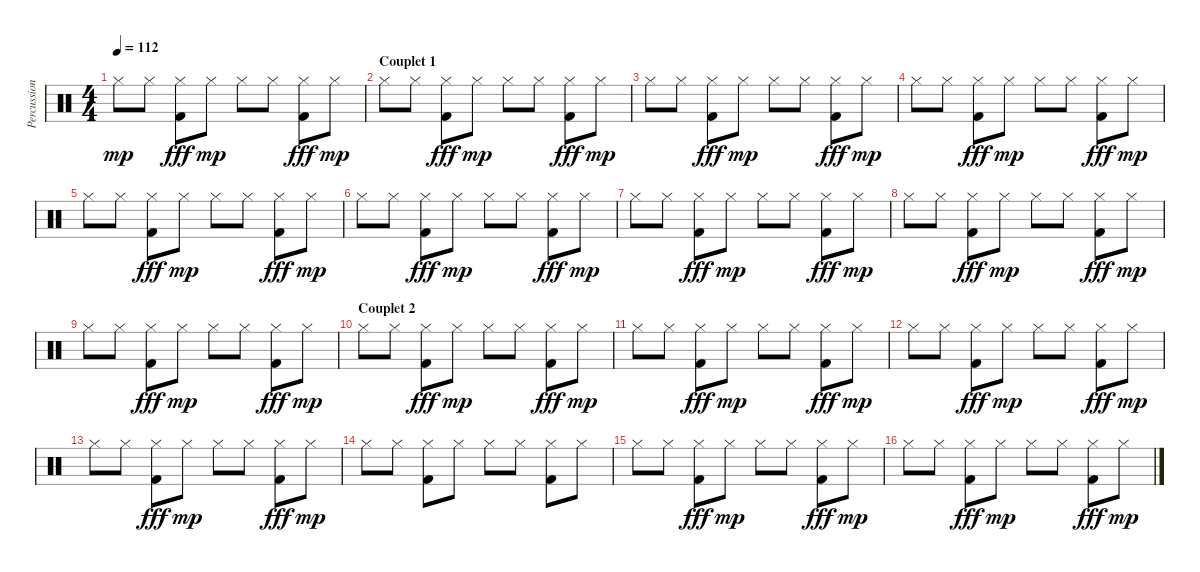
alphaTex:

\track ("Percussions" "Percussion") {instrument percussion}
\staff {score}
\articulation defaults
\ts (4 4)
\tempo 112
\clef neutral
\ks c "Hi-Hat (closed)".8{dy mp} "Hi-Hat (closed)".8
("Hi-Hat (closed)" "Kick (hit) 2").8{dy fff} "Hi-Hat (closed)".8{dy mp} "Hi-Hat (closed)".8 "Hi-Hat (closed)".8 ("Hi-Hat (closed)" "Kick (hit) 2").8{dy fff} "Hi-Hat (closed)".8{dy mp} |
\section ("" "Couplet 1")
"Hi-Hat (closed)".8 "Hi-Hat (closed)".8 ("Hi-Hat (closed)" "Kick (hit) 2").8{dy fff} "Hi-Hat (closed)".8{dy mp} "Hi-Hat (closed)".8 "Hi-Hat (closed)".8 ("Hi-Hat (closed)" "Kick (hit) 2").8{dy fff} "Hi-Hat (closed)".8{dy mp} |
"Hi-Hat (closed)".8 "Hi-Hat (closed)".8 ("Hi-Hat (closed)" "Kick (hit) 2").8{dy fff} "Hi-Hat (closed)".8{dy mp} "Hi-Hat (closed)".8 "Hi-Hat (closed)".8 ("Hi-Hat (closed)" "Kick (hit) 2").8{dy fff} "Hi-Hat (closed)".8{dy mp} |
"Hi-Hat (closed)".8 "Hi-Hat (closed)".8 ("Hi-Hat (closed)" "Kick (hit) 2").8{dy fff} "Hi-Hat (closed)".8{dy mp} "Hi-Hat (closed)".8 "Hi-Hat (closed)".8 ("Hi-Hat (closed)" "Kick (hit) 2").8{dy fff} "Hi-Hat (closed)".8{dy mp} |
"Hi-Hat (closed)".8 "Hi-Hat (closed)".8 ("Hi-Hat (closed)" "Kick (hit) 2").8{dy fff} "Hi-Hat (closed)".8{dy mp} "Hi-Hat (closed)".8 "Hi-Hat (closed)".8 ("Hi-Hat (closed)" "Kick (hit) 2").8{dy fff} "Hi-Hat (closed)".8{dy mp} |
"Hi-Hat (closed)".8 "Hi-Hat (closed)".8 ("Hi-Hat (closed)" "Kick (hit) 2").8{dy fff} "Hi-Hat (closed)".8{dy mp} "Hi-Hat (closed)".8 "Hi-Hat (closed)".8 ("Hi-Hat (closed)" "Kick (hit) 2").8{dy fff} "Hi-Hat (closed)".8{dy mp} |
"Hi-Hat (closed)".8 "Hi-Hat (closed)".8 ("Hi-Hat (closed)" "Kick (hit) 2").8{dy fff} "Hi-Hat (closed)".8{dy mp} "Hi-Hat (closed)".8 "Hi-Hat (closed)".8 ("Hi-Hat (closed)" "Kick (hit) 2").8{dy fff} "Hi-Hat (closed)".8{dy mp} |
"Hi-Hat (closed)".8 "Hi-Hat (closed)".8 ("Hi-Hat (closed)" "Kick (hit) 2").8{dy fff} "Hi-Hat (closed)".8{dy mp} "Hi-Hat (closed)".8 "Hi-Hat (closed)".8 ("Hi-Hat (closed)" "Kick (hit) 2").8{dy fff} "Hi-Hat (closed)".8{dy mp} |
"Hi-Hat (closed)".8 "Hi-Hat (closed)".8 ("Hi-Hat (closed)" "Kick (hit) 2").8{dy fff} "Hi-Hat (closed)".8{dy mp} "Hi-Hat (closed)".8 "Hi-Hat (closed)".8 ("Hi-Hat (closed)" "Kick (hit) 2").8{dy fff} "Hi-Hat (closed)".8{dy mp} |
\section ("" "Couplet 2")
"Hi-Hat (closed)".8 "Hi-Hat (closed)".8 ("Hi-Hat (closed)" "Kick (hit) 2").8{dy fff} "Hi-Hat (closed)".8{dy mp} "Hi-Hat (closed)".8 "Hi-Hat (closed)".8 ("Hi-Hat (closed)" "Kick (hit) 2").8{dy fff} "Hi-Hat (closed)".8{dy mp} |
"Hi-Hat (closed)".8 "Hi-Hat (closed)".8 ("Hi-Hat (closed)" "Kick (hit) 2").8{dy fff} "Hi-Hat (closed)".8{dy mp} "Hi-Hat (closed)".8 "Hi-Hat (closed)".8 ("Hi-Hat (closed)" "Kick (hit) 2").8{dy fff} "Hi-Hat (closed)".8{dy mp} |
"Hi-Hat (closed)".8 "Hi-Hat (closed)".8 ("Hi-Hat (closed)" "Kick (hit) 2").8{dy fff} "Hi-Hat (closed)".8{dy mp} "Hi-Hat (closed)".8 "Hi-Hat (closed)".8 ("Hi-Hat (closed)" "Kick (hit) 2").8{dy fff} "Hi-Hat (closed)".8{dy mp} |
"Hi-Hat (closed)".8 "Hi-Hat (closed)".8 ("Hi-Hat (closed)" "Kick (hit) 2").8{dy fff} "Hi-Hat (closed)".8{dy mp} "Hi-Hat (closed)".8 "Hi-Hat (closed)".8 ("Hi-Hat (closed)" "Kick (hit) 2").8{dy fff} "Hi-Hat (closed)".8{dy mp} |
"Hi-Hat (closed)".8 "Hi-Hat (closed)".8 ("Hi-Hat (closed)" "Kick (hit) 2").8 "Hi-Hat (closed)".8 "Hi-Hat (closed)".8 "Hi-Hat (closed)".8 ("Hi-Hat (closed)" "Kick (hit) 2").8 "Hi-Hat (closed)".8 |
"Hi-Hat (closed)".8 "Hi-Hat (closed)".8 ("Hi-Hat (closed)" "Kick (hit) 2").8{dy fff} "Hi-Hat (closed)".8{dy mp} "Hi-Hat (closed)".8 "Hi-Hat (closed)".8 ("Hi-Hat (closed)" "Kick (hit) 2").8{dy fff} "Hi-Hat (closed)".8{dy mp} |
"Hi-Hat (closed)".8 "Hi-Hat (closed)".8 ("Hi-Hat (closed)" "Kick (hit) 2").8{dy fff} "Hi-Hat (closed)".8{dy mp} "Hi-Hat (closed)".8 "Hi-Hat (closed)".8 ("Hi-Hat (closed)" "Kick (hit) 2").8{dy fff} "Hi-Hat (closed)".8{dy mp}
